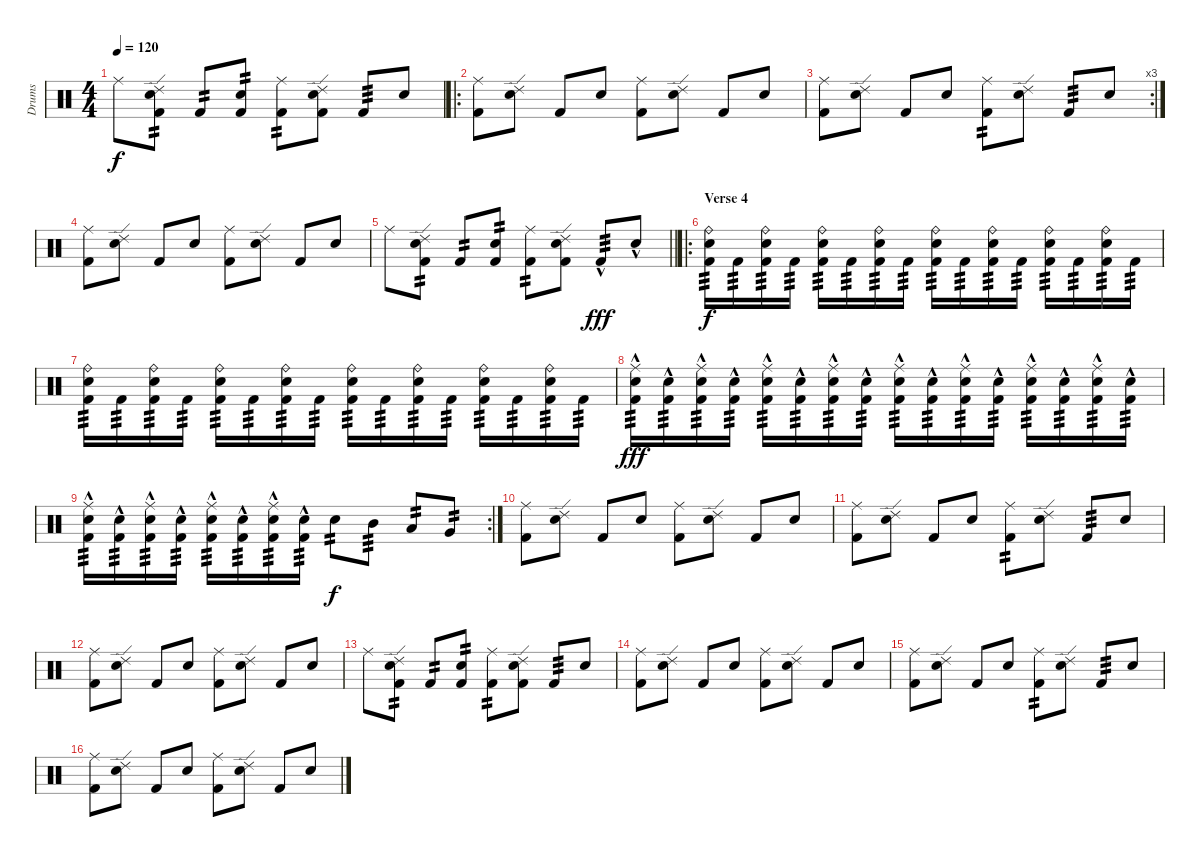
\track ("Drums " "Drums ") {instrument percussion}
\staff {score}
\articulation defaults
\ts (4 4)
\tempo 120
\clef neutral
\ks c "Ride (middle)".8{dy f}
("Ride (edge) 2" "Snare (hit) 2" "Kick (hit) 2").8{tp 2} "Kick (hit) 2".8{tp 2} ("Snare (hit) 2" "Kick (hit) 2").8{tp 2} ("Ride (middle)" "Kick (hit) 2").8{tp 2} ("Ride (edge) 2" "Snare (hit) 2" "Kick (hit) 2").8 "Kick (hit) 2".8{tp 3} "Snare (hit) 2".8 |
\ro
("Ride (middle)" "Kick (hit) 2").8 ("Ride (edge) 2" "Snare (hit) 2").8 "Kick (hit) 2".8 "Snare (hit) 2".8 ("Ride (middle)" "Kick (hit) 2").8 ("Ride (edge) 2" "Snare (hit) 2").8 "Kick (hit) 2".8 "Snare (hit) 2".8 |
\rc 3
("Ride (middle)" "Kick (hit) 2").8 ("Ride (edge) 2" "Snare (hit) 2").8 "Kick (hit) 2".8 "Snare (hit) 2".8 ("Ride (middle)" "Kick (hit) 2").8{tp 2} ("Ride (edge) 2" "Snare (hit) 2").8 "Kick (hit) 2".8{tp 3} "Snare (hit) 2".8 |
("Ride (middle)" "Kick (hit) 2").8 ("Ride (edge) 2" "Snare (hit) 2").8 "Kick (hit) 2".8 "Snare (hit) 2".8 ("Ride (middle)" "Kick (hit) 2").8 ("Ride (edge) 2" "Snare (hit) 2").8 "Kick (hit) 2".8 "Snare (hit) 2".8 |
\barLineRight lightlight "Ride (middle)".8
("Ride (edge) 2" "Snare (hit) 2" "Kick (hit) 2").8{tp 2} "Kick (hit) 2".8{tp 2} ("Snare (hit) 2" "Kick (hit) 2").8{tp 2} ("Ride (middle)" "Kick (hit) 2").8{tp 2} ("Ride (edge) 2" "Snare (hit) 2" "Kick (hit) 2").8 "Kick (hit) 2"{hac}.8{tp 3 dy fff} "Snare (hit) 2"{hac}.8 |
\ro
\section ("" "Verse 4")
("Ride (bell)" "Snare (hit) 2" "Kick (hit) 2").16{tp 3 dy f} "Kick (hit) 2".16{tp 3} ("Ride (bell)" "Snare (hit) 2" "Kick (hit) 2").16{tp 3} "Kick (hit) 2".16{tp 3} ("Ride (bell)" "Snare (hit) 2" "Kick (hit) 2").16{tp 3} "Kick (hit) 2".16{tp 3} ("Ride (bell)" "Snare (hit) 2" "Kick (hit) 2").16{tp 3} "Kick (hit) 2".16{tp 3} ("Ride (bell)" "Snare (hit) 2" "Kick (hit) 2").16{tp 3} "Kick (hit) 2".16{tp 3} ("Ride (bell)" "Snare (hit) 2" "Kick (hit) 2").16{tp 3} "Kick (hit) 2".16{tp 3} ("Ride (bell)" "Snare (hit) 2" "Kick (hit) 2").16{tp 3} "Kick (hit) 2".16{tp 3} ("Ride (bell)" "Snare (hit) 2" "Kick (hit) 2").16{tp 3} "Kick (hit) 2".16{tp 3} |
("Ride (bell)" "Snare (hit) 2" "Kick (hit) 2").16{tp 3} "Kick (hit) 2".16{tp 3} ("Ride (bell)" "Snare (hit) 2" "Kick (hit) 2").16{tp 3} "Kick (hit) 2".16{tp 3} ("Ride (bell)" "Snare (hit) 2" "Kick (hit) 2").16{tp 3} "Kick (hit) 2".16{tp 3} ("Ride (bell)" "Snare (hit) 2" "Kick (hit) 2").16{tp 3} "Kick (hit) 2".16{tp 3} ("Ride (bell)" "Snare (hit) 2" "Kick (hit) 2").16{tp 3} "Kick (hit) 2".16{tp 3} ("Ride (bell)" "Snare (hit) 2" "Kick (hit) 2").16{tp 3} "Kick (hit) 2".16{tp 3} ("Ride (bell)" "Snare (hit) 2" "Kick (hit) 2").16{tp 3} "Kick (hit) 2".16{tp 3} ("Ride (bell)" "Snare (hit) 2" "Kick (hit) 2").16{tp 3} "Kick (hit) 2".16{tp 3} |
("Ride (middle)" "Snare (hit) 2" "Kick (hit) 2"{hac}).16{tp 3 dy fff} ("Snare (hit) 2" "Kick (hit) 2"{hac}).16{tp 3} ("Ride (middle)" "Snare (hit) 2" "Kick (hit) 2"{hac}).16{tp 3} ("Snare (hit) 2" "Kick (hit) 2"{hac}).16{tp 3} ("Ride (middle)" "Snare (hit) 2" "Kick (hit) 2"{hac}).16{tp 3} ("Snare (hit) 2" "Kick (hit) 2"{hac}).16{tp 3} ("Ride (middle)" "Snare (hit) 2" "Kick (hit) 2"{hac}).16{tp 3} ("Snare (hit) 2" "Kick (hit) 2"{hac}).16{tp 3} ("Ride (middle)" "Snare (hit) 2" "Kick (hit) 2"{hac}).16{tp 3} ("Snare (hit) 2" "Kick (hit) 2"{hac}).16{tp 3} ("Ride (middle)" "Snare (hit) 2" "Kick (hit) 2"{hac}).16{tp 3} ("Snare (hit) 2" "Kick (hit) 2"{hac}).16{tp 3} ("Ride (middle)" "Snare (hit) 2" "Kick (hit) 2"{hac}).16{tp 3} ("Snare (hit) 2" "Kick (hit) 2"{hac}).16{tp 3} ("Ride (middle)" "Snare (hit) 2" "Kick (hit) 2"{hac}).16{tp 3} ("Snare (hit) 2" "Kick (hit) 2"{hac}).16{tp 3} |
\rc 2
("Ride (middle)" "Snare (hit) 2" "Kick (hit) 2"{hac}).16{tp 3} ("Snare (hit) 2" "Kick (hit) 2"{hac}).16{tp 3} ("Ride (middle)" "Snare (hit) 2" "Kick (hit) 2"{hac}).16{tp 3} ("Snare (hit) 2" "Kick (hit) 2"{hac}).16{tp 3} ("Ride (middle)" "Snare (hit) 2" "Kick (hit) 2"{hac}).16{tp 3} ("Snare (hit) 2" "Kick (hit) 2"{hac}).16{tp 3} ("Ride (middle)" "Snare (hit) 2" "Kick (hit) 2"{hac}).16{tp 3} ("Snare (hit) 2" "Kick (hit) 2"{hac}).16{tp 3} "Snare (hit) 2".8{tp 2 dy f} "Mid Tom (hit)".8{tp 3} "Low Tom (hit)".8{tp 2} "Very Low Tom (hit)".8{tp 2} |
("Ride (middle)" "Kick (hit) 2").8 ("Ride (edge) 2" "Snare (hit) 2").8 "Kick (hit) 2".8 "Snare (hit) 2".8 ("Ride (middle)" "Kick (hit) 2").8 ("Ride (edge) 2" "Snare (hit) 2").8 "Kick (hit) 2".8 "Snare (hit) 2".8 |
("Ride (middle)" "Kick (hit) 2").8 ("Ride (edge) 2" "Snare (hit) 2").8 "Kick (hit) 2".8 "Snare (hit) 2".8 ("Ride (middle)" "Kick (hit) 2").8{tp 2} ("Ride (edge) 2" "Snare (hit) 2").8 "Kick (hit) 2".8{tp 3} "Snare (hit) 2".8 |
("Ride (middle)" "Kick (hit) 2").8 ("Ride (edge) 2" "Snare (hit) 2").8 "Kick (hit) 2".8 "Snare (hit) 2".8 ("Ride (middle)" "Kick (hit) 2").8 ("Ride (edge) 2" "Snare (hit) 2").8 "Kick (hit) 2".8 "Snare (hit) 2".8 |
"Ride (middle)".8 ("Ride (edge) 2" "Snare (hit) 2" "Kick (hit) 2").8{tp 2} "Kick (hit) 2".8{tp 2} ("Snare (hit) 2" "Kick (hit) 2").8{tp 2} ("Ride (middle)" "Kick (hit) 2").8{tp 2} ("Ride (edge) 2" "Snare (hit) 2" "Kick (hit) 2").8 "Kick (hit) 2".8{tp 3} "Snare (hit) 2".8 |
("Ride (middle)" "Kick (hit) 2").8 ("Ride (edge) 2" "Snare (hit) 2").8 "Kick (hit) 2".8 "Snare (hit) 2".8 ("Ride (middle)" "Kick (hit) 2").8 ("Ride (edge) 2" "Snare (hit) 2").8 "Kick (hit) 2".8 "Snare (hit) 2".8 |
("Ride (middle)" "Kick (hit) 2").8 ("Ride (edge) 2" "Snare (hit) 2").8 "Kick (hit) 2".8 "Snare (hit) 2".8 ("Ride (middle)" "Kick (hit) 2").8{tp 2} ("Ride (edge) 2" "Snare (hit) 2").8 "Kick (hit) 2".8{tp 3} "Snare (hit) 2".8 |
("Ride (middle)" "Kick (hit) 2").8 ("Ride (edge) 2" "Snare (hit) 2").8 "Kick (hit) 2".8 "Snare (hit) 2".8 ("Ride (middle)" "Kick (hit) 2").8 ("Ride (edge) 2" "Snare (hit) 2").8 "Kick (hit) 2".8 "Snare (hit) 2".8
